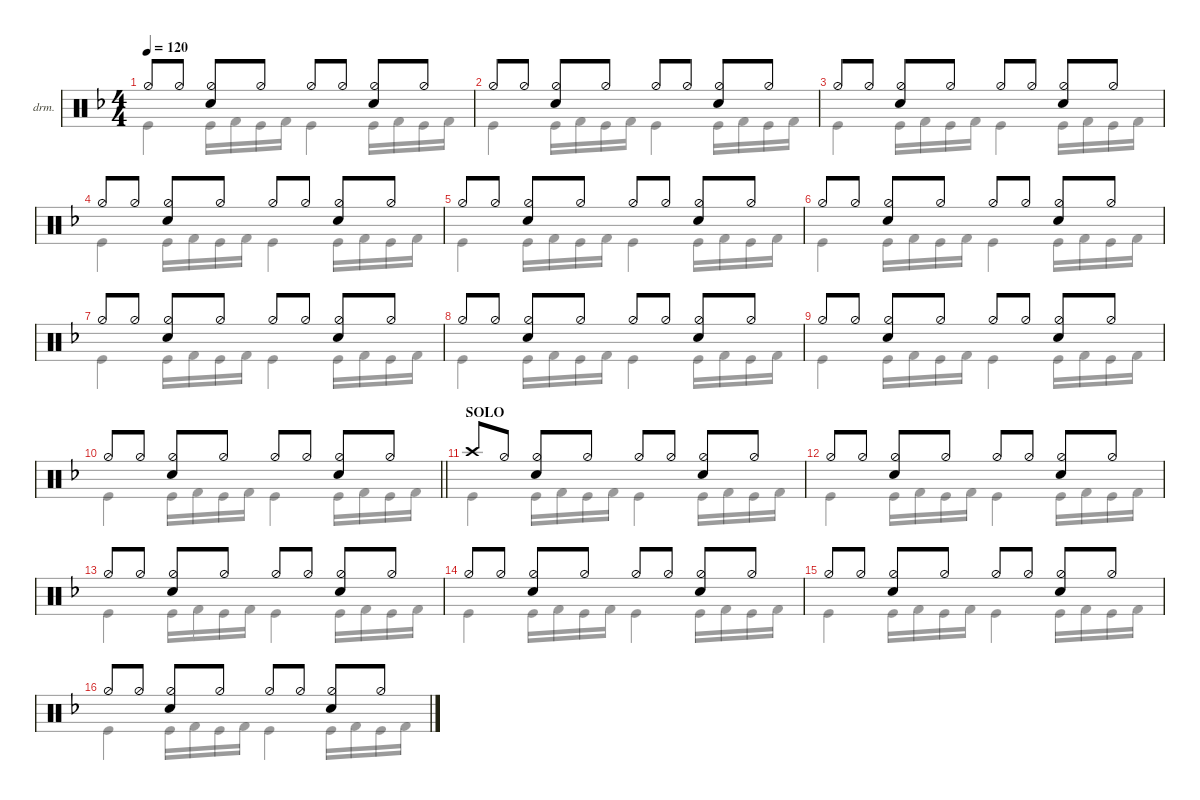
\defaultSystemsLayout 4
\hideDynamics
\bracketExtendMode nobrackets
\firstSystemTrackNameOrientation horizontal
\track ("Drumkit" "drm.") {mute instrument percussion}
\staff {score}
\articulation defaults
\voice
\ts (4 4)
\tempo 120
\clef neutral
\ks dminor "Hi-Hat (half)"{acc forcenatural}.8{dy mf} "Hi-Hat (half)"{acc forcenatural}.8
("Hi-Hat (half)"{acc forcenatural} "Snare (hit) 2"{acc forcenatural}).8 "Hi-Hat (half)"{acc forcenatural}.8 "Hi-Hat (half)"{acc forcenatural}.8 "Hi-Hat (half)"{acc forcenatural}.8 ("Hi-Hat (half)"{acc forcenatural} "Snare (hit) 2"{acc forcenatural}).8 "Hi-Hat (half)"{acc forcenatural}.8 |
"Hi-Hat (half)"{acc forcenatural}.8 "Hi-Hat (half)"{acc forcenatural}.8 ("Hi-Hat (half)"{acc forcenatural} "Snare (hit) 2"{acc forcenatural}).8 "Hi-Hat (half)"{acc forcenatural}.8 "Hi-Hat (half)"{acc forcenatural}.8 "Hi-Hat (half)"{acc forcenatural}.8 ("Hi-Hat (half)"{acc forcenatural} "Snare (hit) 2"{acc forcenatural}).8 "Hi-Hat (half)"{acc forcenatural}.8 |
"Hi-Hat (half)"{acc forcenatural}.8 "Hi-Hat (half)"{acc forcenatural}.8 ("Hi-Hat (half)"{acc forcenatural} "Snare (hit) 2"{acc forcenatural}).8 "Hi-Hat (half)"{acc forcenatural}.8 "Hi-Hat (half)"{acc forcenatural}.8 "Hi-Hat (half)"{acc forcenatural}.8 ("Hi-Hat (half)"{acc forcenatural} "Snare (hit) 2"{acc forcenatural}).8 "Hi-Hat (half)"{acc forcenatural}.8 |
"Hi-Hat (half)"{acc forcenatural}.8 "Hi-Hat (half)"{acc forcenatural}.8 ("Hi-Hat (half)"{acc forcenatural} "Snare (hit) 2"{acc forcenatural}).8 "Hi-Hat (half)"{acc forcenatural}.8 "Hi-Hat (half)"{acc forcenatural}.8 "Hi-Hat (half)"{acc forcenatural}.8 ("Hi-Hat (half)"{acc forcenatural} "Snare (hit) 2"{acc forcenatural}).8 "Hi-Hat (half)"{acc forcenatural}.8 |
"Hi-Hat (half)"{acc forcenatural}.8 "Hi-Hat (half)"{acc forcenatural}.8 ("Hi-Hat (half)"{acc forcenatural} "Snare (hit) 2"{acc forcenatural}).8 "Hi-Hat (half)"{acc forcenatural}.8 "Hi-Hat (half)"{acc forcenatural}.8 "Hi-Hat (half)"{acc forcenatural}.8 ("Hi-Hat (half)"{acc forcenatural} "Snare (hit) 2"{acc forcenatural}).8 "Hi-Hat (half)"{acc forcenatural}.8 |
"Hi-Hat (half)"{acc forcenatural}.8 "Hi-Hat (half)"{acc forcenatural}.8 ("Hi-Hat (half)"{acc forcenatural} "Snare (hit) 2"{acc forcenatural}).8 "Hi-Hat (half)"{acc forcenatural}.8 "Hi-Hat (half)"{acc forcenatural}.8 "Hi-Hat (half)"{acc forcenatural}.8 ("Hi-Hat (half)"{acc forcenatural} "Snare (hit) 2"{acc forcenatural}).8 "Hi-Hat (half)"{acc forcenatural}.8 |
"Hi-Hat (half)"{acc forcenatural}.8 "Hi-Hat (half)"{acc forcenatural}.8 ("Hi-Hat (half)"{acc forcenatural} "Snare (hit) 2"{acc forcenatural}).8 "Hi-Hat (half)"{acc forcenatural}.8 "Hi-Hat (half)"{acc forcenatural}.8 "Hi-Hat (half)"{acc forcenatural}.8 ("Hi-Hat (half)"{acc forcenatural} "Snare (hit) 2"{acc forcenatural}).8 "Hi-Hat (half)"{acc forcenatural}.8 |
"Hi-Hat (half)"{acc forcenatural}.8 "Hi-Hat (half)"{acc forcenatural}.8 ("Hi-Hat (half)"{acc forcenatural} "Snare (hit) 2"{acc forcenatural}).8 "Hi-Hat (half)"{acc forcenatural}.8 "Hi-Hat (half)"{acc forcenatural}.8 "Hi-Hat (half)"{acc forcenatural}.8 ("Hi-Hat (half)"{acc forcenatural} "Snare (hit) 2"{acc forcenatural}).8 "Hi-Hat (half)"{acc forcenatural}.8 |
"Hi-Hat (half)"{acc forcenatural}.8 "Hi-Hat (half)"{acc forcenatural}.8 ("Hi-Hat (half)"{acc forcenatural} "Snare (hit) 2"{acc forcenatural}).8 "Hi-Hat (half)"{acc forcenatural}.8 "Hi-Hat (half)"{acc forcenatural}.8 "Hi-Hat (half)"{acc forcenatural}.8 ("Hi-Hat (half)"{acc forcenatural} "Snare (hit) 2"{acc forcenatural}).8 "Hi-Hat (half)"{acc forcenatural}.8 |
\barLineRight lightlight "Hi-Hat (half)"{acc forcenatural}.8 "Hi-Hat (half)"{acc forcenatural}.8
("Hi-Hat (half)"{acc forcenatural} "Snare (hit) 2"{acc forcenatural}).8 "Hi-Hat (half)"{acc forcenatural}.8 "Hi-Hat (half)"{acc forcenatural}.8 "Hi-Hat (half)"{acc forcenatural}.8 ("Hi-Hat (half)"{acc forcenatural} "Snare (hit) 2"{acc forcenatural}).8 "Hi-Hat (half)"{acc forcenatural}.8 |
\section ("" "SOLO")
"Crash high (hit)"{acc forcenatural}.8 "Hi-Hat (half)"{acc forcenatural}.8 ("Hi-Hat (half)"{acc forcenatural} "Snare (hit) 2"{acc forcenatural}).8 "Hi-Hat (half)"{acc forcenatural}.8 "Hi-Hat (half)"{acc forcenatural}.8 "Hi-Hat (half)"{acc forcenatural}.8 ("Hi-Hat (half)"{acc forcenatural} "Snare (hit) 2"{acc forcenatural}).8 "Hi-Hat (half)"{acc forcenatural}.8 |
"Hi-Hat (half)"{acc forcenatural}.8 "Hi-Hat (half)"{acc forcenatural}.8 ("Hi-Hat (half)"{acc forcenatural} "Snare (hit) 2"{acc forcenatural}).8 "Hi-Hat (half)"{acc forcenatural}.8 "Hi-Hat (half)"{acc forcenatural}.8 "Hi-Hat (half)"{acc forcenatural}.8 ("Hi-Hat (half)"{acc forcenatural} "Snare (hit) 2"{acc forcenatural}).8 "Hi-Hat (half)"{acc forcenatural}.8 |
"Hi-Hat (half)"{acc forcenatural}.8 "Hi-Hat (half)"{acc forcenatural}.8 ("Hi-Hat (half)"{acc forcenatural} "Snare (hit) 2"{acc forcenatural}).8 "Hi-Hat (half)"{acc forcenatural}.8 "Hi-Hat (half)"{acc forcenatural}.8 "Hi-Hat (half)"{acc forcenatural}.8 ("Hi-Hat (half)"{acc forcenatural} "Snare (hit) 2"{acc forcenatural}).8 "Hi-Hat (half)"{acc forcenatural}.8 |
"Hi-Hat (half)"{acc forcenatural}.8 "Hi-Hat (half)"{acc forcenatural}.8 ("Hi-Hat (half)"{acc forcenatural} "Snare (hit) 2"{acc forcenatural}).8 "Hi-Hat (half)"{acc forcenatural}.8 "Hi-Hat (half)"{acc forcenatural}.8 "Hi-Hat (half)"{acc forcenatural}.8 ("Hi-Hat (half)"{acc forcenatural} "Snare (hit) 2"{acc forcenatural}).8 "Hi-Hat (half)"{acc forcenatural}.8 |
"Hi-Hat (half)"{acc forcenatural}.8 "Hi-Hat (half)"{acc forcenatural}.8 ("Hi-Hat (half)"{acc forcenatural} "Snare (hit) 2"{acc forcenatural}).8 "Hi-Hat (half)"{acc forcenatural}.8 "Hi-Hat (half)"{acc forcenatural}.8 "Hi-Hat (half)"{acc forcenatural}.8 ("Hi-Hat (half)"{acc forcenatural} "Snare (hit) 2"{acc forcenatural}).8 "Hi-Hat (half)"{acc forcenatural}.8 |
"Hi-Hat (half)"{acc forcenatural}.8 "Hi-Hat (half)"{acc forcenatural}.8 ("Hi-Hat (half)"{acc forcenatural} "Snare (hit) 2"{acc forcenatural}).8 "Hi-Hat (half)"{acc forcenatural}.8 "Hi-Hat (half)"{acc forcenatural}.8 "Hi-Hat (half)"{acc forcenatural}.8 ("Hi-Hat (half)"{acc forcenatural} "Snare (hit) 2"{acc forcenatural}).8 "Hi-Hat (half)"{acc forcenatural}.8
\voice
\clef neutral
\ottava regular
\simile none
\ks dminor "Kick (hit)"{acc forcenatural}.4{dy mf} "Kick (hit)"{acc forcenatural}.16 "Kick (hit) 2"{acc forcenatural}.16 "Kick (hit)"{acc forcenatural}.16 "Kick (hit) 2"{acc forcenatural}.16 "Kick (hit)"{acc forcenatural}.4 "Kick (hit)"{acc forcenatural}.16 "Kick (hit) 2"{acc forcenatural}.16 "Kick (hit)"{acc forcenatural}.16 "Kick (hit) 2"{acc forcenatural}.16
|
"Kick (hit)"{acc forcenatural}.4 "Kick (hit)"{acc forcenatural}.16 "Kick (hit) 2"{acc forcenatural}.16 "Kick (hit)"{acc forcenatural}.16 "Kick (hit) 2"{acc forcenatural}.16 "Kick (hit)"{acc forcenatural}.4 "Kick (hit)"{acc forcenatural}.16 "Kick (hit) 2"{acc forcenatural}.16 "Kick (hit)"{acc forcenatural}.16 "Kick (hit) 2"{acc forcenatural}.16 |
"Kick (hit)"{acc forcenatural}.4 "Kick (hit)"{acc forcenatural}.16 "Kick (hit) 2"{acc forcenatural}.16 "Kick (hit)"{acc forcenatural}.16 "Kick (hit) 2"{acc forcenatural}.16 "Kick (hit)"{acc forcenatural}.4 "Kick (hit)"{acc forcenatural}.16 "Kick (hit) 2"{acc forcenatural}.16 "Kick (hit)"{acc forcenatural}.16 "Kick (hit) 2"{acc forcenatural}.16 |
"Kick (hit)"{acc forcenatural}.4 "Kick (hit)"{acc forcenatural}.16 "Kick (hit) 2"{acc forcenatural}.16 "Kick (hit)"{acc forcenatural}.16 "Kick (hit) 2"{acc forcenatural}.16 "Kick (hit)"{acc forcenatural}.4 "Kick (hit)"{acc forcenatural}.16 "Kick (hit) 2"{acc forcenatural}.16 "Kick (hit)"{acc forcenatural}.16 "Kick (hit) 2"{acc forcenatural}.16 |
"Kick (hit)"{acc forcenatural}.4 "Kick (hit)"{acc forcenatural}.16 "Kick (hit) 2"{acc forcenatural}.16 "Kick (hit)"{acc forcenatural}.16 "Kick (hit) 2"{acc forcenatural}.16 "Kick (hit)"{acc forcenatural}.4 "Kick (hit)"{acc forcenatural}.16 "Kick (hit) 2"{acc forcenatural}.16 "Kick (hit)"{acc forcenatural}.16 "Kick (hit) 2"{acc forcenatural}.16 |
"Kick (hit)"{acc forcenatural}.4 "Kick (hit)"{acc forcenatural}.16 "Kick (hit) 2"{acc forcenatural}.16 "Kick (hit)"{acc forcenatural}.16 "Kick (hit) 2"{acc forcenatural}.16 "Kick (hit)"{acc forcenatural}.4 "Kick (hit)"{acc forcenatural}.16 "Kick (hit) 2"{acc forcenatural}.16 "Kick (hit)"{acc forcenatural}.16 "Kick (hit) 2"{acc forcenatural}.16 |
"Kick (hit)"{acc forcenatural}.4 "Kick (hit)"{acc forcenatural}.16 "Kick (hit) 2"{acc forcenatural}.16 "Kick (hit)"{acc forcenatural}.16 "Kick (hit) 2"{acc forcenatural}.16 "Kick (hit)"{acc forcenatural}.4 "Kick (hit)"{acc forcenatural}.16 "Kick (hit) 2"{acc forcenatural}.16 "Kick (hit)"{acc forcenatural}.16 "Kick (hit) 2"{acc forcenatural}.16 |
"Kick (hit)"{acc forcenatural}.4 "Kick (hit)"{acc forcenatural}.16 "Kick (hit) 2"{acc forcenatural}.16 "Kick (hit)"{acc forcenatural}.16 "Kick (hit) 2"{acc forcenatural}.16 "Kick (hit)"{acc forcenatural}.4 "Kick (hit)"{acc forcenatural}.16 "Kick (hit) 2"{acc forcenatural}.16 "Kick (hit)"{acc forcenatural}.16 "Kick (hit) 2"{acc forcenatural}.16 |
"Kick (hit)"{acc forcenatural}.4 "Kick (hit)"{acc forcenatural}.16 "Kick (hit) 2"{acc forcenatural}.16 "Kick (hit)"{acc forcenatural}.16 "Kick (hit) 2"{acc forcenatural}.16 "Kick (hit)"{acc forcenatural}.4 "Kick (hit)"{acc forcenatural}.16 "Kick (hit) 2"{acc forcenatural}.16 "Kick (hit)"{acc forcenatural}.16 "Kick (hit) 2"{acc forcenatural}.16 |
\barLineRight lightlight "Kick (hit)"{acc forcenatural}.4 "Kick (hit)"{acc forcenatural}.16 "Kick (hit) 2"{acc forcenatural}.16 "Kick (hit)"{acc forcenatural}.16 "Kick (hit) 2"{acc forcenatural}.16 "Kick (hit)"{acc forcenatural}.4 "Kick (hit)"{acc forcenatural}.16 "Kick (hit) 2"{acc forcenatural}.16 "Kick (hit)"{acc forcenatural}.16 "Kick (hit) 2"{acc forcenatural}.16
|
"Kick (hit)"{acc forcenatural}.4 "Kick (hit)"{acc forcenatural}.16 "Kick (hit) 2"{acc forcenatural}.16 "Kick (hit)"{acc forcenatural}.16 "Kick (hit) 2"{acc forcenatural}.16 "Kick (hit)"{acc forcenatural}.4 "Kick (hit)"{acc forcenatural}.16 "Kick (hit) 2"{acc forcenatural}.16 "Kick (hit)"{acc forcenatural}.16 "Kick (hit) 2"{acc forcenatural}.16 |
"Kick (hit)"{acc forcenatural}.4 "Kick (hit)"{acc forcenatural}.16 "Kick (hit) 2"{acc forcenatural}.16 "Kick (hit)"{acc forcenatural}.16 "Kick (hit) 2"{acc forcenatural}.16 "Kick (hit)"{acc forcenatural}.4 "Kick (hit)"{acc forcenatural}.16 "Kick (hit) 2"{acc forcenatural}.16 "Kick (hit)"{acc forcenatural}.16 "Kick (hit) 2"{acc forcenatural}.16 |
"Kick (hit)"{acc forcenatural}.4 "Kick (hit)"{acc forcenatural}.16 "Kick (hit) 2"{acc forcenatural}.16 "Kick (hit)"{acc forcenatural}.16 "Kick (hit) 2"{acc forcenatural}.16 "Kick (hit)"{acc forcenatural}.4 "Kick (hit)"{acc forcenatural}.16 "Kick (hit) 2"{acc forcenatural}.16 "Kick (hit)"{acc forcenatural}.16 "Kick (hit) 2"{acc forcenatural}.16 |
"Kick (hit)"{acc forcenatural}.4 "Kick (hit)"{acc forcenatural}.16 "Kick (hit) 2"{acc forcenatural}.16 "Kick (hit)"{acc forcenatural}.16 "Kick (hit) 2"{acc forcenatural}.16 "Kick (hit)"{acc forcenatural}.4 "Kick (hit)"{acc forcenatural}.16 "Kick (hit) 2"{acc forcenatural}.16 "Kick (hit)"{acc forcenatural}.16 "Kick (hit) 2"{acc forcenatural}.16 |
"Kick (hit)"{acc forcenatural}.4 "Kick (hit)"{acc forcenatural}.16 "Kick (hit) 2"{acc forcenatural}.16 "Kick (hit)"{acc forcenatural}.16 "Kick (hit) 2"{acc forcenatural}.16 "Kick (hit)"{acc forcenatural}.4 "Kick (hit)"{acc forcenatural}.16 "Kick (hit) 2"{acc forcenatural}.16 "Kick (hit)"{acc forcenatural}.16 "Kick (hit) 2"{acc forcenatural}.16 |
"Kick (hit)"{acc forcenatural}.4 "Kick (hit)"{acc forcenatural}.16 "Kick (hit) 2"{acc forcenatural}.16 "Kick (hit)"{acc forcenatural}.16 "Kick (hit) 2"{acc forcenatural}.16 "Kick (hit)"{acc forcenatural}.4 "Kick (hit)"{acc forcenatural}.16 "Kick (hit) 2"{acc forcenatural}.16 "Kick (hit)"{acc forcenatural}.16 "Kick (hit) 2"{acc forcenatural}.16
